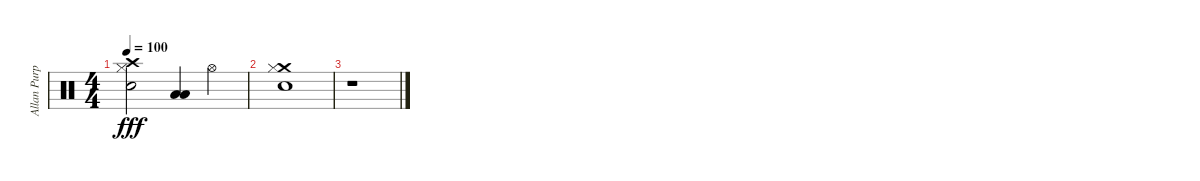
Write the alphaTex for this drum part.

\track ("Allan Purple" "Allan Purp") {instrument percussion}
\staff {score}
\articulation defaults
\ts (4 4)
\tempo 100
\clef neutral
\ks c
("Crash high (hit)" "Hi-Hat (closed)" "Snare (hit) 2").2{dy fff} ("Low Tom (hit)" "Low Tom (hit)").4 "Hi-Hat (open)".4 |
("Crash medium (hit)" "Hi-Hat (closed)" "Snare (hit) 2").1 |
r.1
